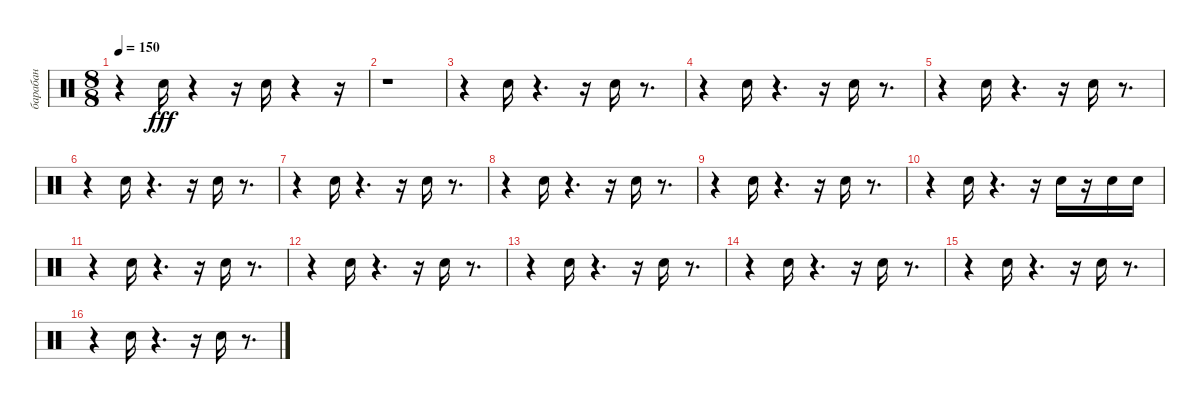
\track ("барабан" "барабан") {instrument percussion}
\staff {score}
\articulation defaults
\ts (8 8)
\tempo 150
\clef neutral
\ks c
r.4{dy fff} "Snare (hit) 2".16 r.4 r.16 "Snare (hit) 2".16 r.4 r.16 |
r.1 |
r.4 "Snare (hit) 2".16 r.4{d} r.16 "Snare (hit) 2".16 r.8{d} |
r.4 "Snare (hit) 2".16 r.4{d} r.16 "Snare (hit) 2".16 r.8{d} |
r.4 "Snare (hit) 2".16 r.4{d} r.16 "Snare (hit) 2".16 r.8{d} |
r.4 "Snare (hit) 2".16 r.4{d} r.16 "Snare (hit) 2".16 r.8{d} |
r.4 "Snare (hit) 2".16 r.4{d} r.16 "Snare (hit) 2".16 r.8{d} |
r.4 "Snare (hit) 2".16 r.4{d} r.16 "Snare (hit) 2".16 r.8{d} |
r.4 "Snare (hit) 2".16 r.4{d} r.16 "Snare (hit) 2".16 r.8{d} |
r.4 "Snare (hit) 2".16 r.4{d} r.16 "Snare (hit) 2".16 r.16 "Snare (hit) 2".16 "Snare (hit) 2".16 |
r.4 "Snare (hit) 2".16 r.4{d} r.16 "Snare (hit) 2".16 r.8{d} |
r.4 "Snare (hit) 2".16 r.4{d} r.16 "Snare (hit) 2".16 r.8{d} |
r.4 "Snare (hit) 2".16 r.4{d} r.16 "Snare (hit) 2".16 r.8{d} |
r.4 "Snare (hit) 2".16 r.4{d} r.16 "Snare (hit) 2".16 r.8{d} |
r.4 "Snare (hit) 2".16 r.4{d} r.16 "Snare (hit) 2".16 r.8{d} |
r.4 "Snare (hit) 2".16 r.4{d} r.16 "Snare (hit) 2".16 r.8{d}
